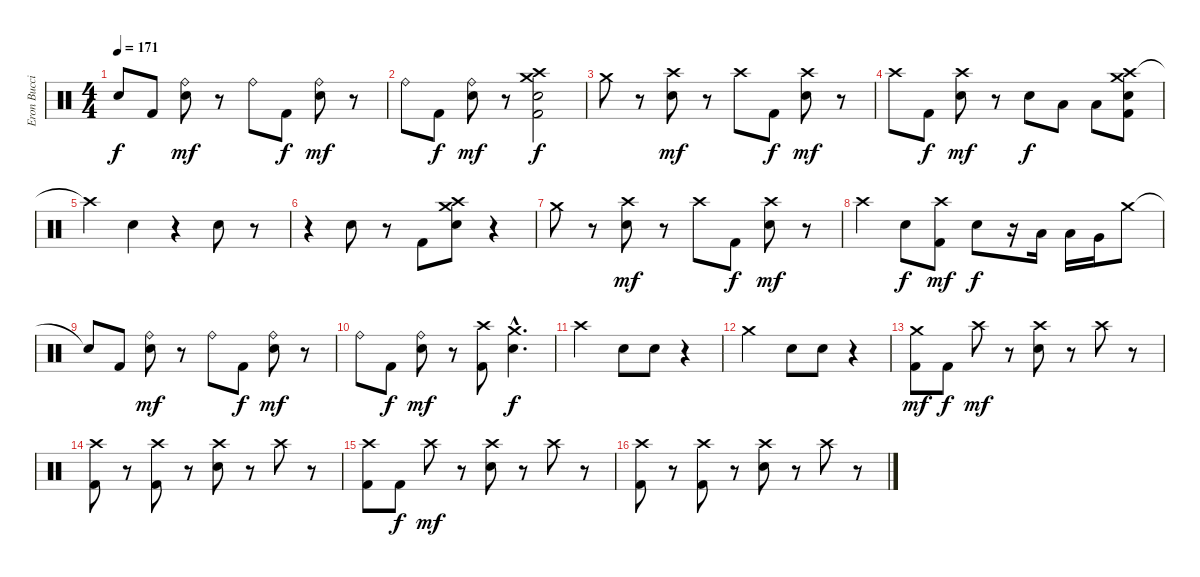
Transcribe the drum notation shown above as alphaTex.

\track ("Eron Bucciarelli (Drums)" "Eron Bucci") {instrument percussion}
\staff {score}
\articulation defaults
\ts (4 4)
\tempo 171
\clef neutral
\ks c "Snare (hit)"{t}.8{dy f} "Kick (hit) 2".8
("Ride (bell)" "Snare (hit) 2").8{dy mf} r.8 "Ride (bell)".8 "Kick (hit) 2".8{dy f} ("Ride (bell)" "Snare (hit) 2").8{dy mf} r.8 |
"Ride (bell)".8 "Kick (hit) 2".8{dy f} ("Ride (bell)" "Snare (hit) 2").8{dy mf} r.8 ("Crash high (hit)" "Crash medium (hit)" "Snare (hit) 2" "Kick (hit) 2").2{dy f} |
"Crash medium (hit)".8 r.8 ("Crash high (hit)" "Snare (hit) 2").8{dy mf} r.8 "Crash high (hit)".8 "Kick (hit) 2".8{dy f} ("Crash high (hit)" "Snare (hit) 2").8{dy mf} r.8 |
"Crash high (hit)".8 "Kick (hit) 2".8{dy f} ("Crash high (hit)" "Snare (hit) 2").8{dy mf} r.8 "Snare (hit) 2".8{dy f} "Low Tom (hit)".8 "Low Floor Tom (hit)".8 ("Crash high (hit)" "Crash medium (hit)" "Snare (hit) 2" "Kick (hit) 2").8 |
"Crash high (hit)"{t}.4 "Snare (hit) 2".4 r.4 "Snare (hit) 2".8 r.8 |
r.4 "Snare (hit) 2".8 r.8 "Kick (hit) 2".8 ("Crash medium (hit)" "Crash high (hit)" "Snare (hit) 2").8 r.4 |
"Crash medium (hit)".8 r.8 ("Crash high (hit)" "Snare (hit) 2").8{dy mf} r.8 "Crash high (hit)".8 "Kick (hit) 2".8{dy f} ("Crash high (hit)" "Snare (hit) 2").8{dy mf} r.8 |
"Crash high (hit)".4 "Snare (hit) 2".8{dy f} ("Crash high (hit)" "Kick (hit) 2").8{dy mf} "Snare (hit) 2".8{dy f} r.16 "Low Tom (hit)".16 "Low Tom (hit)".16 "Very Low Tom (hit)".16 "Crash medium (hit)".8 |
"Snare (hit)"{t}.8 "Kick (hit) 2".8 ("Ride (bell)" "Snare (hit) 2").8{dy mf} r.8 "Ride (bell)".8 "Kick (hit) 2".8{dy f} ("Ride (bell)" "Snare (hit) 2").8{dy mf} r.8 |
"Ride (bell)".8 "Kick (hit) 2".8{dy f} ("Ride (bell)" "Snare (hit) 2").8{dy mf} r.8 ("Crash high (hit)" "Kick (hit) 2").8 ("Crash medium (hit)"{hac} "Snare (hit) 2"{hac}).4{d dy f} |
"Crash high (hit)".2 "Snare (hit) 2".8 "Snare (hit) 2".8 r.4 |
"Crash medium (hit)".2 "Snare (hit) 2".8 "Snare (hit) 2".8 r.4 |
("Crash medium (hit)" "Kick (hit) 2").8{dy mf} "Kick (hit) 2".8{dy f} "Crash high (hit)".8{dy mf} r.8 ("Crash high (hit)" "Snare (hit) 2").8 r.8 "Crash high (hit)".8 r.8 |
("Crash high (hit)" "Kick (hit) 2").8 r.8 ("Crash high (hit)" "Kick (hit) 2").8 r.8 ("Crash high (hit)" "Snare (hit) 2").8 r.8 "Crash high (hit)".8 r.8 |
("Crash high (hit)" "Kick (hit) 2").8 "Kick (hit) 2".8{dy f} "Crash high (hit)".8{dy mf} r.8 ("Crash high (hit)" "Snare (hit) 2").8 r.8 "Crash high (hit)".8 r.8 |
("Crash high (hit)" "Kick (hit) 2").8 r.8 ("Crash high (hit)" "Kick (hit) 2").8 r.8 ("Crash high (hit)" "Snare (hit) 2").8 r.8 "Crash high (hit)".8 r.8
